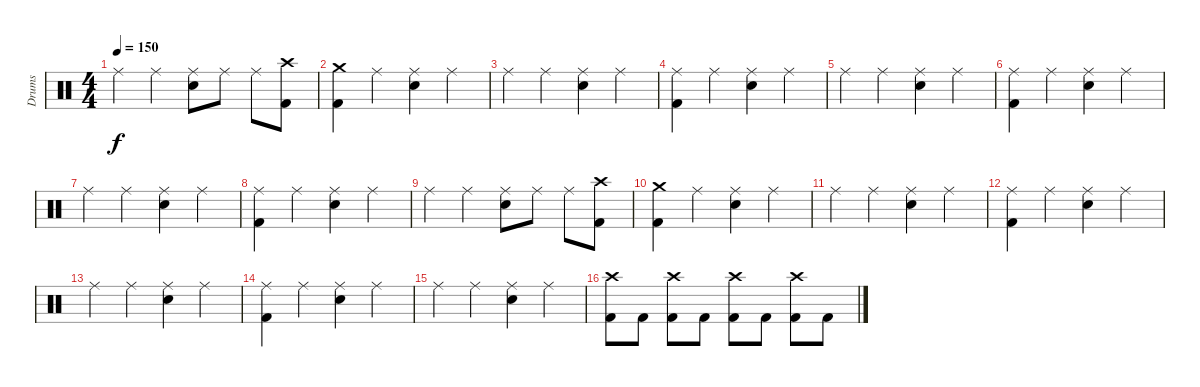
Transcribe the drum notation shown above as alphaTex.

\track ("Drums" "Drums") {instrument percussion}
\staff {score}
\articulation defaults
\ts (4 4)
\tempo 150
\clef neutral
\ks c "Ride (middle)".4{dy f} "Ride (middle)".4
("Ride (middle)" "Snare (hit) 2").8 "Ride (middle)".8 "Ride (middle)".8 ("Crash high (hit)" "Kick (hit) 2").8 |
("Crash medium (hit)" "Kick (hit) 2").4 "Ride (middle)".4 ("Ride (middle)" "Snare (hit) 2").4 "Ride (middle)".4 |
"Ride (middle)".4 "Ride (middle)".4 ("Ride (middle)" "Snare (hit) 2").4 "Ride (middle)".4 |
("Ride (middle)" "Kick (hit) 2").4 "Ride (middle)".4 ("Ride (middle)" "Snare (hit) 2").4 "Ride (middle)".4 |
"Ride (middle)".4 "Ride (middle)".4 ("Ride (middle)" "Snare (hit) 2").4 "Ride (middle)".4 |
("Ride (middle)" "Kick (hit) 2").4 "Ride (middle)".4 ("Ride (middle)" "Snare (hit) 2").4 "Ride (middle)".4 |
"Ride (middle)".4 "Ride (middle)".4 ("Ride (middle)" "Snare (hit) 2").4 "Ride (middle)".4 |
("Ride (middle)" "Kick (hit) 2").4 "Ride (middle)".4 ("Ride (middle)" "Snare (hit) 2").4 "Ride (middle)".4 |
"Ride (middle)".4 "Ride (middle)".4 ("Ride (middle)" "Snare (hit) 2").8 "Ride (middle)".8 "Ride (middle)".8 ("Crash high (hit)" "Kick (hit) 2").8 |
("Crash medium (hit)" "Kick (hit) 2").4 "Ride (middle)".4 ("Ride (middle)" "Snare (hit) 2").4 "Ride (middle)".4 |
"Ride (middle)".4 "Ride (middle)".4 ("Ride (middle)" "Snare (hit) 2").4 "Ride (middle)".4 |
("Ride (middle)" "Kick (hit) 2").4 "Ride (middle)".4 ("Ride (middle)" "Snare (hit) 2").4 "Ride (middle)".4 |
"Ride (middle)".4 "Ride (middle)".4 ("Ride (middle)" "Snare (hit) 2").4 "Ride (middle)".4 |
("Ride (middle)" "Kick (hit) 2").4 "Ride (middle)".4 ("Ride (middle)" "Snare (hit) 2").4 "Ride (middle)".4 |
"Ride (middle)".4 "Ride (middle)".4 ("Ride (middle)" "Snare (hit) 2").4 "Ride (middle)".4 |
("Crash high (hit)" "Kick (hit) 2").8{volume 6} "Kick (hit) 2".8{volume 13} ("Crash high (hit)" "Kick (hit) 2").8 "Kick (hit) 2".8 ("Crash high (hit)" "Kick (hit) 2").8 "Kick (hit) 2".8 ("Crash high (hit)" "Kick (hit) 2").8 "Kick (hit) 2".8
